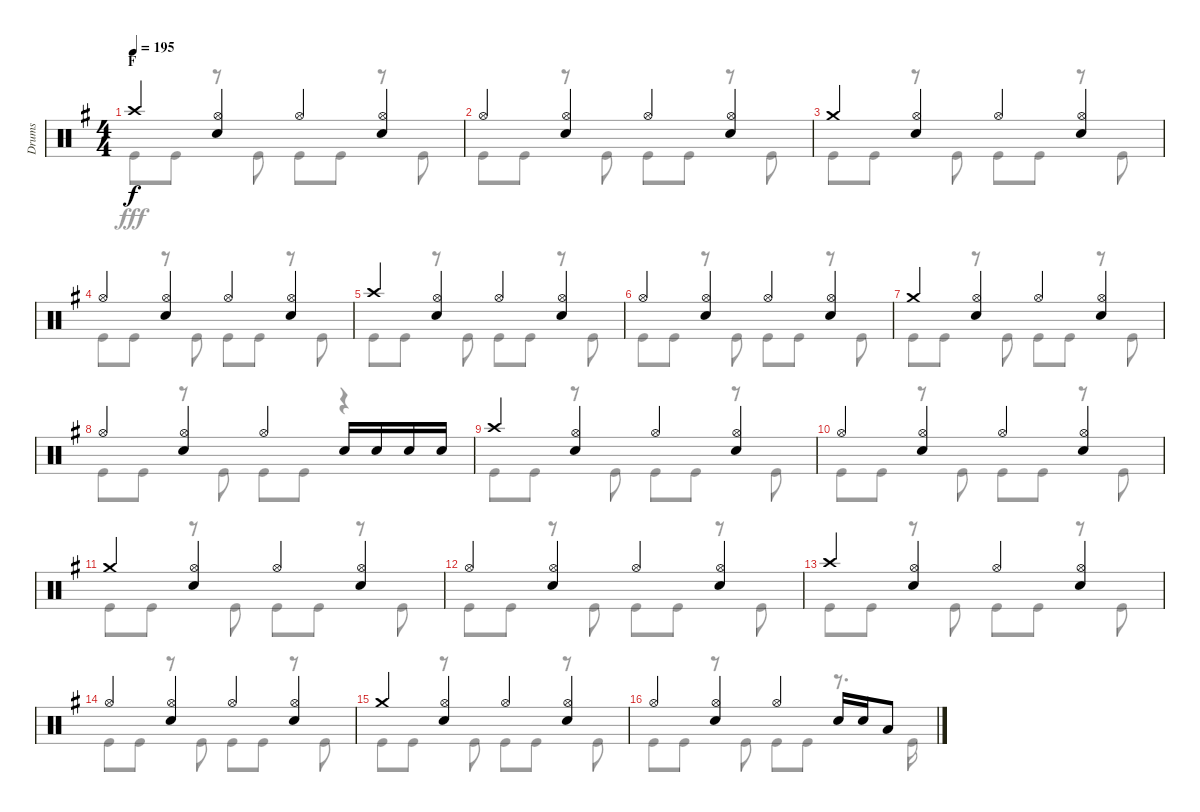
\track ("Drums" "Drums") {instrument percussion}
\staff {score}
\articulation defaults
\voice
\ts (4 4)
\section ("" "F")
\tempo 195
\clef neutral
\ks g "Crash high (hit)".4{dy f}
("Hi-Hat (open)" "Snare (hit) 2").4 "Hi-Hat (open)".4 ("Hi-Hat (open)" "Snare (hit) 2").4 |
"Hi-Hat (open)".4 ("Hi-Hat (open)" "Snare (hit) 2").4 "Hi-Hat (open)".4 ("Hi-Hat (open)" "Snare (hit) 2").4 |
"Crash medium (hit)".4 ("Hi-Hat (open)" "Snare (hit) 2").4 "Hi-Hat (open)".4 ("Hi-Hat (open)" "Snare (hit) 2").4 |
"Hi-Hat (open)".4 ("Hi-Hat (open)" "Snare (hit) 2").4 "Hi-Hat (open)".4 ("Hi-Hat (open)" "Snare (hit) 2").4 |
"Crash high (hit)".4 ("Hi-Hat (open)" "Snare (hit) 2").4 "Hi-Hat (open)".4 ("Hi-Hat (open)" "Snare (hit) 2").4 |
"Hi-Hat (open)".4 ("Hi-Hat (open)" "Snare (hit) 2").4 "Hi-Hat (open)".4 ("Hi-Hat (open)" "Snare (hit) 2").4 |
"Crash medium (hit)".4 ("Hi-Hat (open)" "Snare (hit) 2").4 "Hi-Hat (open)".4 ("Hi-Hat (open)" "Snare (hit) 2").4 |
"Hi-Hat (open)".4 ("Hi-Hat (open)" "Snare (hit) 2").4 "Hi-Hat (open)".4 "Snare (hit) 2".16 "Snare (hit) 2".16 "Snare (hit) 2".16 "Snare (hit) 2".16 |
"Crash high (hit)".4 ("Hi-Hat (open)" "Snare (hit) 2").4 "Hi-Hat (open)".4 ("Hi-Hat (open)" "Snare (hit) 2").4 |
"Hi-Hat (open)".4 ("Hi-Hat (open)" "Snare (hit) 2").4 "Hi-Hat (open)".4 ("Hi-Hat (open)" "Snare (hit) 2").4 |
"Crash medium (hit)".4 ("Hi-Hat (open)" "Snare (hit) 2").4 "Hi-Hat (open)".4 ("Hi-Hat (open)" "Snare (hit) 2").4 |
"Hi-Hat (open)".4 ("Hi-Hat (open)" "Snare (hit) 2").4 "Hi-Hat (open)".4 ("Hi-Hat (open)" "Snare (hit) 2").4 |
"Crash high (hit)".4 ("Hi-Hat (open)" "Snare (hit) 2").4 "Hi-Hat (open)".4 ("Hi-Hat (open)" "Snare (hit) 2").4 |
"Hi-Hat (open)".4 ("Hi-Hat (open)" "Snare (hit) 2").4 "Hi-Hat (open)".4 ("Hi-Hat (open)" "Snare (hit) 2").4 |
"Crash medium (hit)".4 ("Hi-Hat (open)" "Snare (hit) 2").4 "Hi-Hat (open)".4 ("Hi-Hat (open)" "Snare (hit) 2").4 |
"Hi-Hat (open)".4 ("Hi-Hat (open)" "Snare (hit) 2").4 "Hi-Hat (open)".4 "Snare (hit) 2".16 "Snare (hit) 2".16 "Low Tom (hit)".8
\voice
\clef neutral
\ottava regular
\simile none
\ks g "Kick (hit)".8{dy fff} "Kick (hit)".8
r.8 "Kick (hit)".8 "Kick (hit)".8 "Kick (hit)".8 r.8 "Kick (hit)".8 |
"Kick (hit)".8 "Kick (hit)".8 r.8 "Kick (hit)".8 "Kick (hit)".8 "Kick (hit)".8 r.8 "Kick (hit)".8 |
"Kick (hit)".8 "Kick (hit)".8 r.8 "Kick (hit)".8 "Kick (hit)".8 "Kick (hit)".8 r.8 "Kick (hit)".8 |
"Kick (hit)".8 "Kick (hit)".8 r.8 "Kick (hit)".8 "Kick (hit)".8 "Kick (hit)".8 r.8 "Kick (hit)".8 |
"Kick (hit)".8 "Kick (hit)".8 r.8 "Kick (hit)".8 "Kick (hit)".8 "Kick (hit)".8 r.8 "Kick (hit)".8 |
"Kick (hit)".8 "Kick (hit)".8 r.8 "Kick (hit)".8 "Kick (hit)".8 "Kick (hit)".8 r.8 "Kick (hit)".8 |
"Kick (hit)".8 "Kick (hit)".8 r.8 "Kick (hit)".8 "Kick (hit)".8 "Kick (hit)".8 r.8 "Kick (hit)".8 |
"Kick (hit)".8 "Kick (hit)".8 r.8 "Kick (hit)".8 "Kick (hit)".8 "Kick (hit)".8 r.4 |
"Kick (hit)".8 "Kick (hit)".8 r.8 "Kick (hit)".8 "Kick (hit)".8 "Kick (hit)".8 r.8 "Kick (hit)".8 |
"Kick (hit)".8 "Kick (hit)".8 r.8 "Kick (hit)".8 "Kick (hit)".8 "Kick (hit)".8 r.8 "Kick (hit)".8 |
"Kick (hit)".8 "Kick (hit)".8 r.8 "Kick (hit)".8 "Kick (hit)".8 "Kick (hit)".8 r.8 "Kick (hit)".8 |
"Kick (hit)".8 "Kick (hit)".8 r.8 "Kick (hit)".8 "Kick (hit)".8 "Kick (hit)".8 r.8 "Kick (hit)".8 |
"Kick (hit)".8 "Kick (hit)".8 r.8 "Kick (hit)".8 "Kick (hit)".8 "Kick (hit)".8 r.8 "Kick (hit)".8 |
"Kick (hit)".8 "Kick (hit)".8 r.8 "Kick (hit)".8 "Kick (hit)".8 "Kick (hit)".8 r.8 "Kick (hit)".8 |
"Kick (hit)".8 "Kick (hit)".8 r.8 "Kick (hit)".8 "Kick (hit)".8 "Kick (hit)".8 r.8 "Kick (hit)".8 |
"Kick (hit)".8 "Kick (hit)".8 r.8 "Kick (hit)".8 "Kick (hit)".8 "Kick (hit)".8 r.8{d} "Kick (hit)".16
